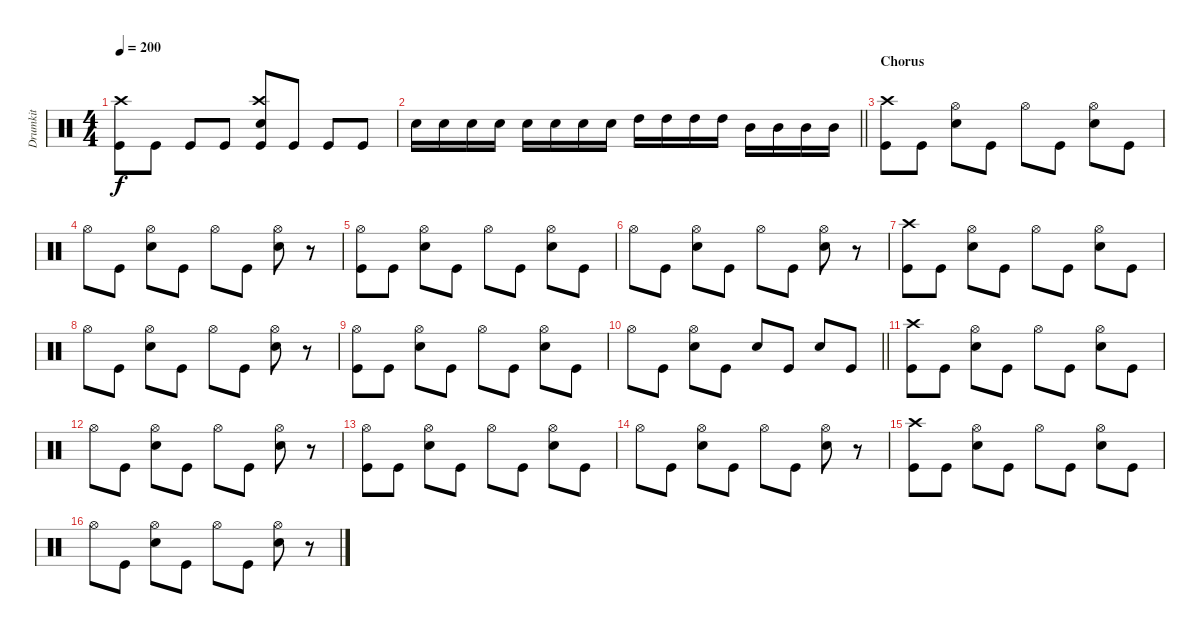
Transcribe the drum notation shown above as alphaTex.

\track ("Drumkit" "Drumkit") {instrument percussion}
\staff {score}
\articulation defaults
\ts (4 4)
\tempo 200
\clef neutral
\ks c
("Kick (hit)" "Crash high (hit)").8{dy f} "Kick (hit)".8 "Kick (hit)".8 "Kick (hit)".8 ("Kick (hit)" "Snare (hit) 2" "Crash high (hit)").8 "Kick (hit)".8 "Kick (hit)".8 "Kick (hit)".8 |
\barLineRight lightlight "Snare (hit) 2".16 "Snare (hit) 2".16 "Snare (hit) 2".16 "Snare (hit) 2".16 "Snare (hit) 2".16 "Snare (hit) 2".16 "Snare (hit) 2".16 "Snare (hit) 2".16 "High Tom (hit)".16 "High Tom (hit)".16 "High Tom (hit)".16 "High Tom (hit)".16 "Mid Tom (hit)".16 "Mid Tom (hit)".16 "Mid Tom (hit)".16 "Mid Tom (hit)".16
|
\section ("" "Chorus")
("Crash high (hit)" "Kick (hit)").8 "Kick (hit)".8 ("Hi-Hat (open)" "Snare (hit) 2").8 "Kick (hit)".8 "Hi-Hat (open)".8 "Kick (hit)".8 ("Snare (hit) 2" "Hi-Hat (open)").8 "Kick (hit)".8 |
"Hi-Hat (open)".8 "Kick (hit)".8 ("Hi-Hat (open)" "Snare (hit) 2").8 "Kick (hit)".8 "Hi-Hat (open)".8 "Kick (hit)".8 ("Snare (hit) 2" "Hi-Hat (open)").8 r.8 |
("Hi-Hat (open)" "Kick (hit)").8 "Kick (hit)".8 ("Hi-Hat (open)" "Snare (hit) 2").8 "Kick (hit)".8 "Hi-Hat (open)".8 "Kick (hit)".8 ("Snare (hit) 2" "Hi-Hat (open)").8 "Kick (hit)".8 |
"Hi-Hat (open)".8 "Kick (hit)".8 ("Hi-Hat (open)" "Snare (hit) 2").8 "Kick (hit)".8 "Hi-Hat (open)".8 "Kick (hit)".8 ("Snare (hit) 2" "Hi-Hat (open)").8 r.8 |
("Crash high (hit)" "Kick (hit)").8 "Kick (hit)".8 ("Hi-Hat (open)" "Snare (hit) 2").8 "Kick (hit)".8 "Hi-Hat (open)".8 "Kick (hit)".8 ("Snare (hit) 2" "Hi-Hat (open)").8 "Kick (hit)".8 |
"Hi-Hat (open)".8 "Kick (hit)".8 ("Hi-Hat (open)" "Snare (hit) 2").8 "Kick (hit)".8 "Hi-Hat (open)".8 "Kick (hit)".8 ("Snare (hit) 2" "Hi-Hat (open)").8 r.8 |
("Hi-Hat (open)" "Kick (hit)").8 "Kick (hit)".8 ("Hi-Hat (open)" "Snare (hit) 2").8 "Kick (hit)".8 "Hi-Hat (open)".8 "Kick (hit)".8 ("Snare (hit) 2" "Hi-Hat (open)").8 "Kick (hit)".8 |
\barLineRight lightlight "Hi-Hat (open)".8 "Kick (hit)".8
("Hi-Hat (open)" "Snare (hit) 2").8 "Kick (hit)".8 "Snare (hit) 2".8 "Kick (hit)".8 "Snare (hit) 2".8 "Kick (hit)".8 |
("Crash high (hit)" "Kick (hit)").8 "Kick (hit)".8 ("Hi-Hat (open)" "Snare (hit) 2").8 "Kick (hit)".8 "Hi-Hat (open)".8 "Kick (hit)".8 ("Snare (hit) 2" "Hi-Hat (open)").8 "Kick (hit)".8 |
"Hi-Hat (open)".8 "Kick (hit)".8 ("Hi-Hat (open)" "Snare (hit) 2").8 "Kick (hit)".8 "Hi-Hat (open)".8 "Kick (hit)".8 ("Snare (hit) 2" "Hi-Hat (open)").8 r.8 |
("Hi-Hat (open)" "Kick (hit)").8 "Kick (hit)".8 ("Hi-Hat (open)" "Snare (hit) 2").8 "Kick (hit)".8 "Hi-Hat (open)".8 "Kick (hit)".8 ("Snare (hit) 2" "Hi-Hat (open)").8 "Kick (hit)".8 |
"Hi-Hat (open)".8 "Kick (hit)".8 ("Hi-Hat (open)" "Snare (hit) 2").8 "Kick (hit)".8 "Hi-Hat (open)".8 "Kick (hit)".8 ("Snare (hit) 2" "Hi-Hat (open)").8 r.8 |
("Crash high (hit)" "Kick (hit)").8 "Kick (hit)".8 ("Hi-Hat (open)" "Snare (hit) 2").8 "Kick (hit)".8 "Hi-Hat (open)".8 "Kick (hit)".8 ("Snare (hit) 2" "Hi-Hat (open)").8 "Kick (hit)".8 |
"Hi-Hat (open)".8 "Kick (hit)".8 ("Hi-Hat (open)" "Snare (hit) 2").8 "Kick (hit)".8 "Hi-Hat (open)".8 "Kick (hit)".8 ("Snare (hit) 2" "Hi-Hat (open)").8 r.8
